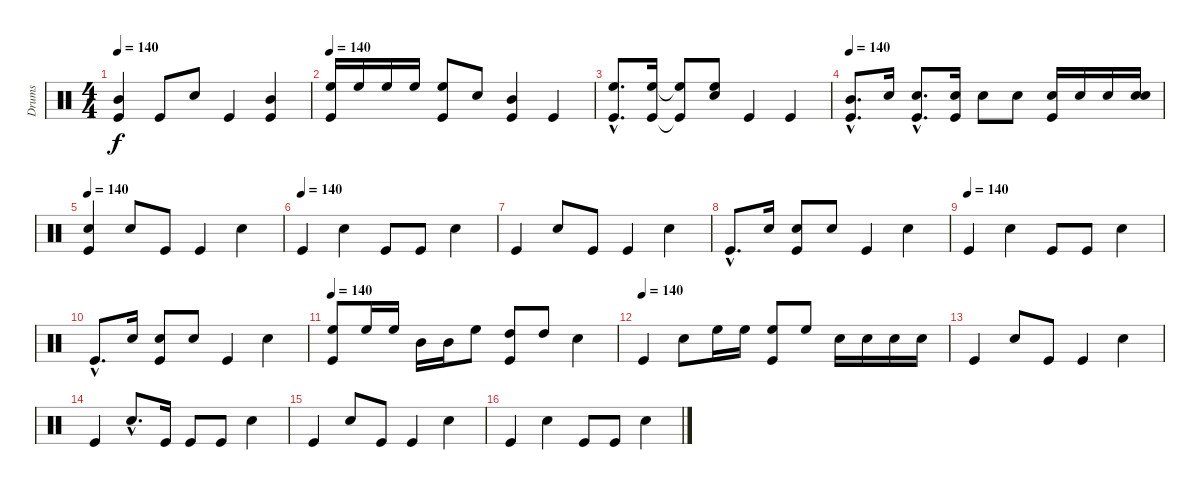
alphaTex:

\track ("Drums" "Drums") {instrument percussion}
\staff {score}
\articulation defaults
\ts (4 4)
\tempo 140
\clef neutral
\ks c
("Kick (hit)" "Mid Tom (hit)").4{dy f} "Kick (hit)".8 "Snare (hit) 2".8 "Kick (hit)".4 ("Kick (hit)" "Mid Tom (hit)").4 |
\tempo 140
("Kick (hit)" "High Floor Tom (hit)").16 "High Floor Tom (hit)".16 "High Floor Tom (hit)".16 "High Floor Tom (hit)".16 ("Kick (hit)" "High Floor Tom (hit)").8 "Snare (hit) 2".8 ("Kick (hit)" "Mid Tom (hit)").4 "Kick (hit)".4 |
("Kick (hit)"{hac} "High Floor Tom (hit)"{hac}).8{d} ("Kick (hit)" "High Floor Tom (hit)").16 ("Kick (hit)"{t} "High Floor Tom (hit)"{t}).8 ("Snare (hit) 2" "High Floor Tom (hit)").8 "Kick (hit)".4 "Kick (hit)".4 |
\tempo 140
("Kick (hit)"{hac} "Mid Tom (hit)"{hac}).8{d} "Snare (hit) 2".16 ("Snare (hit) 2"{hac} "Kick (hit)"{hac}).8{d} ("Kick (hit)" "Snare (hit) 2").16 "Snare (hit) 2".8 "Snare (hit) 2".8 ("Snare (hit) 2" "Kick (hit)").16 "Snare (hit) 2".16 "Snare (hit) 2".16 ("Snare (hit) 2" "Snare (hit) 2").16 |
\tempo 140
("Kick (hit)" "Snare (hit) 2").4 "Snare (hit) 2".8 "Kick (hit)".8 "Kick (hit)".4 "Snare (hit) 2".4 |
\tempo (140)
"Kick (hit)".4 "Snare (hit) 2".4 "Kick (hit)".8 "Kick (hit)".8 "Snare (hit) 2".4 |
"Kick (hit)".4 "Snare (hit) 2".8 "Kick (hit)".8 "Kick (hit)".4 "Snare (hit) 2".4 |
"Kick (hit)"{hac}.8{d} "Snare (hit) 2".16 ("Snare (hit) 2" "Kick (hit)").8 "Snare (hit) 2".8 "Kick (hit)".4 "Snare (hit) 2".4 |
\tempo (140)
"Kick (hit)".4 "Snare (hit) 2".4 "Kick (hit)".8 "Kick (hit)".8 "Snare (hit) 2".4 |
"Kick (hit)"{hac}.8{d} "Snare (hit) 2".16 ("Snare (hit) 2" "Kick (hit)").8 "Snare (hit) 2".8 "Kick (hit)".4 "Snare (hit) 2".4 |
\tempo 140
("Kick (hit)" "High Floor Tom (hit)").8 "High Floor Tom (hit)".16 "High Floor Tom (hit)".16 "Mid Tom (hit)".16 "Mid Tom (hit)".16 "High Floor Tom (hit)".8 ("Kick (hit)" "High Tom (hit)").8 "High Tom (hit)".8 "Snare (hit) 2".4 |
\tempo (140)
"Kick (hit)".4 "Snare (hit) 2".8 "High Floor Tom (hit)".16 "High Floor Tom (hit)".16 ("High Floor Tom (hit)" "Kick (hit)").8 "High Floor Tom (hit)".8 "Snare (hit) 2".16 "Snare (hit) 2".16 "Snare (hit) 2".16 "Snare (hit) 2".16 |
"Kick (hit)".4 "Snare (hit) 2".8 "Kick (hit)".8 "Kick (hit)".4 "Snare (hit) 2".4 |
"Kick (hit)".4 "Snare (hit) 2"{hac}.8{d} "Kick (hit)".16 "Kick (hit)".8 "Kick (hit)".8 "Snare (hit) 2".4 |
"Kick (hit)".4 "Snare (hit) 2".8 "Kick (hit)".8 "Kick (hit)".4 "Snare (hit) 2".4 |
"Kick (hit)".4 "Snare (hit) 2".4 "Kick (hit)".8 "Kick (hit)".8 "Snare (hit) 2".4
